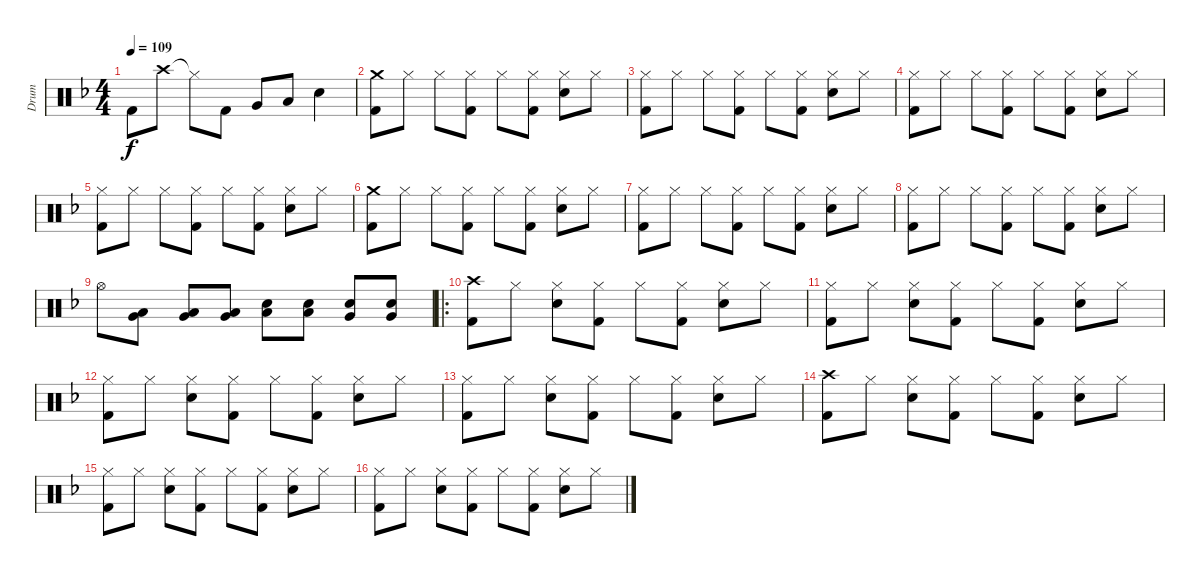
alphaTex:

\track ("Drum" "Drum") {instrument percussion}
\staff {score}
\articulation defaults
\ts (4 4)
\tempo 109
\clef neutral
\ks f "Kick (hit) 2".8{dy f} "Crash high (hit)".8 "Hi-Hat (closed)"{t}.8 "Kick (hit) 2".8 "Very Low Tom (hit)".8 "Low Floor Tom (hit)".8 "Electric Snare (hit)".4
|
("Crash medium (hit)" "Kick (hit) 2").8 "Hi-Hat (closed)".8 "Hi-Hat (closed)".8 ("Hi-Hat (closed)" "Kick (hit) 2").8 "Hi-Hat (closed)".8 ("Hi-Hat (closed)" "Kick (hit) 2").8 ("Hi-Hat (closed)" "Electric Snare (hit)").8 "Hi-Hat (closed)".8 |
("Hi-Hat (closed)" "Kick (hit) 2").8 "Hi-Hat (closed)".8 "Hi-Hat (closed)".8 ("Hi-Hat (closed)" "Kick (hit) 2").8 "Hi-Hat (closed)".8 ("Hi-Hat (closed)" "Kick (hit) 2").8 ("Hi-Hat (closed)" "Electric Snare (hit)").8 "Hi-Hat (closed)".8 |
("Hi-Hat (closed)" "Kick (hit) 2").8 "Hi-Hat (closed)".8 "Hi-Hat (closed)".8 ("Hi-Hat (closed)" "Kick (hit) 2").8 "Hi-Hat (closed)".8 ("Hi-Hat (closed)" "Kick (hit) 2").8 ("Hi-Hat (closed)" "Electric Snare (hit)").8 "Hi-Hat (closed)".8 |
("Hi-Hat (closed)" "Kick (hit) 2").8 "Hi-Hat (closed)".8 "Hi-Hat (closed)".8 ("Hi-Hat (closed)" "Kick (hit) 2").8 "Hi-Hat (closed)".8 ("Hi-Hat (closed)" "Kick (hit) 2").8 ("Hi-Hat (closed)" "Electric Snare (hit)").8 "Hi-Hat (closed)".8 |
("Crash medium (hit)" "Kick (hit) 2").8 "Hi-Hat (closed)".8 "Hi-Hat (closed)".8 ("Hi-Hat (closed)" "Kick (hit) 2").8 "Hi-Hat (closed)".8 ("Hi-Hat (closed)" "Kick (hit) 2").8 ("Hi-Hat (closed)" "Electric Snare (hit)").8 "Hi-Hat (closed)".8 |
("Hi-Hat (closed)" "Kick (hit) 2").8 "Hi-Hat (closed)".8 "Hi-Hat (closed)".8 ("Hi-Hat (closed)" "Kick (hit) 2").8 "Hi-Hat (closed)".8 ("Hi-Hat (closed)" "Kick (hit) 2").8 ("Hi-Hat (closed)" "Electric Snare (hit)").8 "Hi-Hat (closed)".8 |
("Hi-Hat (closed)" "Kick (hit) 2").8 "Hi-Hat (closed)".8 "Hi-Hat (closed)".8 ("Hi-Hat (closed)" "Kick (hit) 2").8 "Hi-Hat (closed)".8 ("Hi-Hat (closed)" "Kick (hit) 2").8 ("Hi-Hat (closed)" "Electric Snare (hit)").8 "Hi-Hat (closed)".8 |
"Hi-Hat (open)".8 ("Very Low Tom (hit)" "Low Floor Tom (hit)").8 ("Very Low Tom (hit)" "Low Floor Tom (hit)").8 ("Very Low Tom (hit)" "Low Floor Tom (hit)").8 ("Electric Snare (hit)" "Low Floor Tom (hit)").8 ("Electric Snare (hit)" "Low Floor Tom (hit)").8 ("Electric Snare (hit)" "Very Low Tom (hit)").8 ("Electric Snare (hit)" "Very Low Tom (hit)").8 |
\ro
("Crash high (hit)" "Kick (hit) 2").8 "Hi-Hat (closed)".8 ("Hi-Hat (closed)" "Electric Snare (hit)").8 ("Hi-Hat (closed)" "Kick (hit) 2").8 "Hi-Hat (closed)".8 ("Hi-Hat (closed)" "Kick (hit) 2").8 ("Hi-Hat (closed)" "Electric Snare (hit)").8 "Hi-Hat (closed)".8 |
("Hi-Hat (closed)" "Kick (hit) 2").8 "Hi-Hat (closed)".8 ("Hi-Hat (closed)" "Electric Snare (hit)").8 ("Hi-Hat (closed)" "Kick (hit) 2").8 "Hi-Hat (closed)".8 ("Hi-Hat (closed)" "Kick (hit) 2").8 ("Hi-Hat (closed)" "Electric Snare (hit)").8 "Hi-Hat (closed)".8 |
("Hi-Hat (closed)" "Kick (hit) 2").8 "Hi-Hat (closed)".8 ("Hi-Hat (closed)" "Electric Snare (hit)").8 ("Hi-Hat (closed)" "Kick (hit) 2").8 "Hi-Hat (closed)".8 ("Hi-Hat (closed)" "Kick (hit) 2").8 ("Hi-Hat (closed)" "Electric Snare (hit)").8 "Hi-Hat (closed)".8 |
("Hi-Hat (closed)" "Kick (hit) 2").8 "Hi-Hat (closed)".8 ("Hi-Hat (closed)" "Electric Snare (hit)").8 ("Hi-Hat (closed)" "Kick (hit) 2").8 "Hi-Hat (closed)".8 ("Hi-Hat (closed)" "Kick (hit) 2").8 ("Hi-Hat (closed)" "Electric Snare (hit)").8 "Hi-Hat (closed)".8 |
("Crash high (hit)" "Kick (hit) 2").8 "Hi-Hat (closed)".8 ("Hi-Hat (closed)" "Electric Snare (hit)").8 ("Hi-Hat (closed)" "Kick (hit) 2").8 "Hi-Hat (closed)".8 ("Hi-Hat (closed)" "Kick (hit) 2").8 ("Hi-Hat (closed)" "Electric Snare (hit)").8 "Hi-Hat (closed)".8 |
("Hi-Hat (closed)" "Kick (hit) 2").8 "Hi-Hat (closed)".8 ("Hi-Hat (closed)" "Electric Snare (hit)").8 ("Hi-Hat (closed)" "Kick (hit) 2").8 "Hi-Hat (closed)".8 ("Hi-Hat (closed)" "Kick (hit) 2").8 ("Hi-Hat (closed)" "Electric Snare (hit)").8 "Hi-Hat (closed)".8 |
("Hi-Hat (closed)" "Kick (hit) 2").8 "Hi-Hat (closed)".8 ("Hi-Hat (closed)" "Electric Snare (hit)").8 ("Hi-Hat (closed)" "Kick (hit) 2").8 "Hi-Hat (closed)".8 ("Hi-Hat (closed)" "Kick (hit) 2").8 ("Hi-Hat (closed)" "Electric Snare (hit)").8 "Hi-Hat (closed)".8
